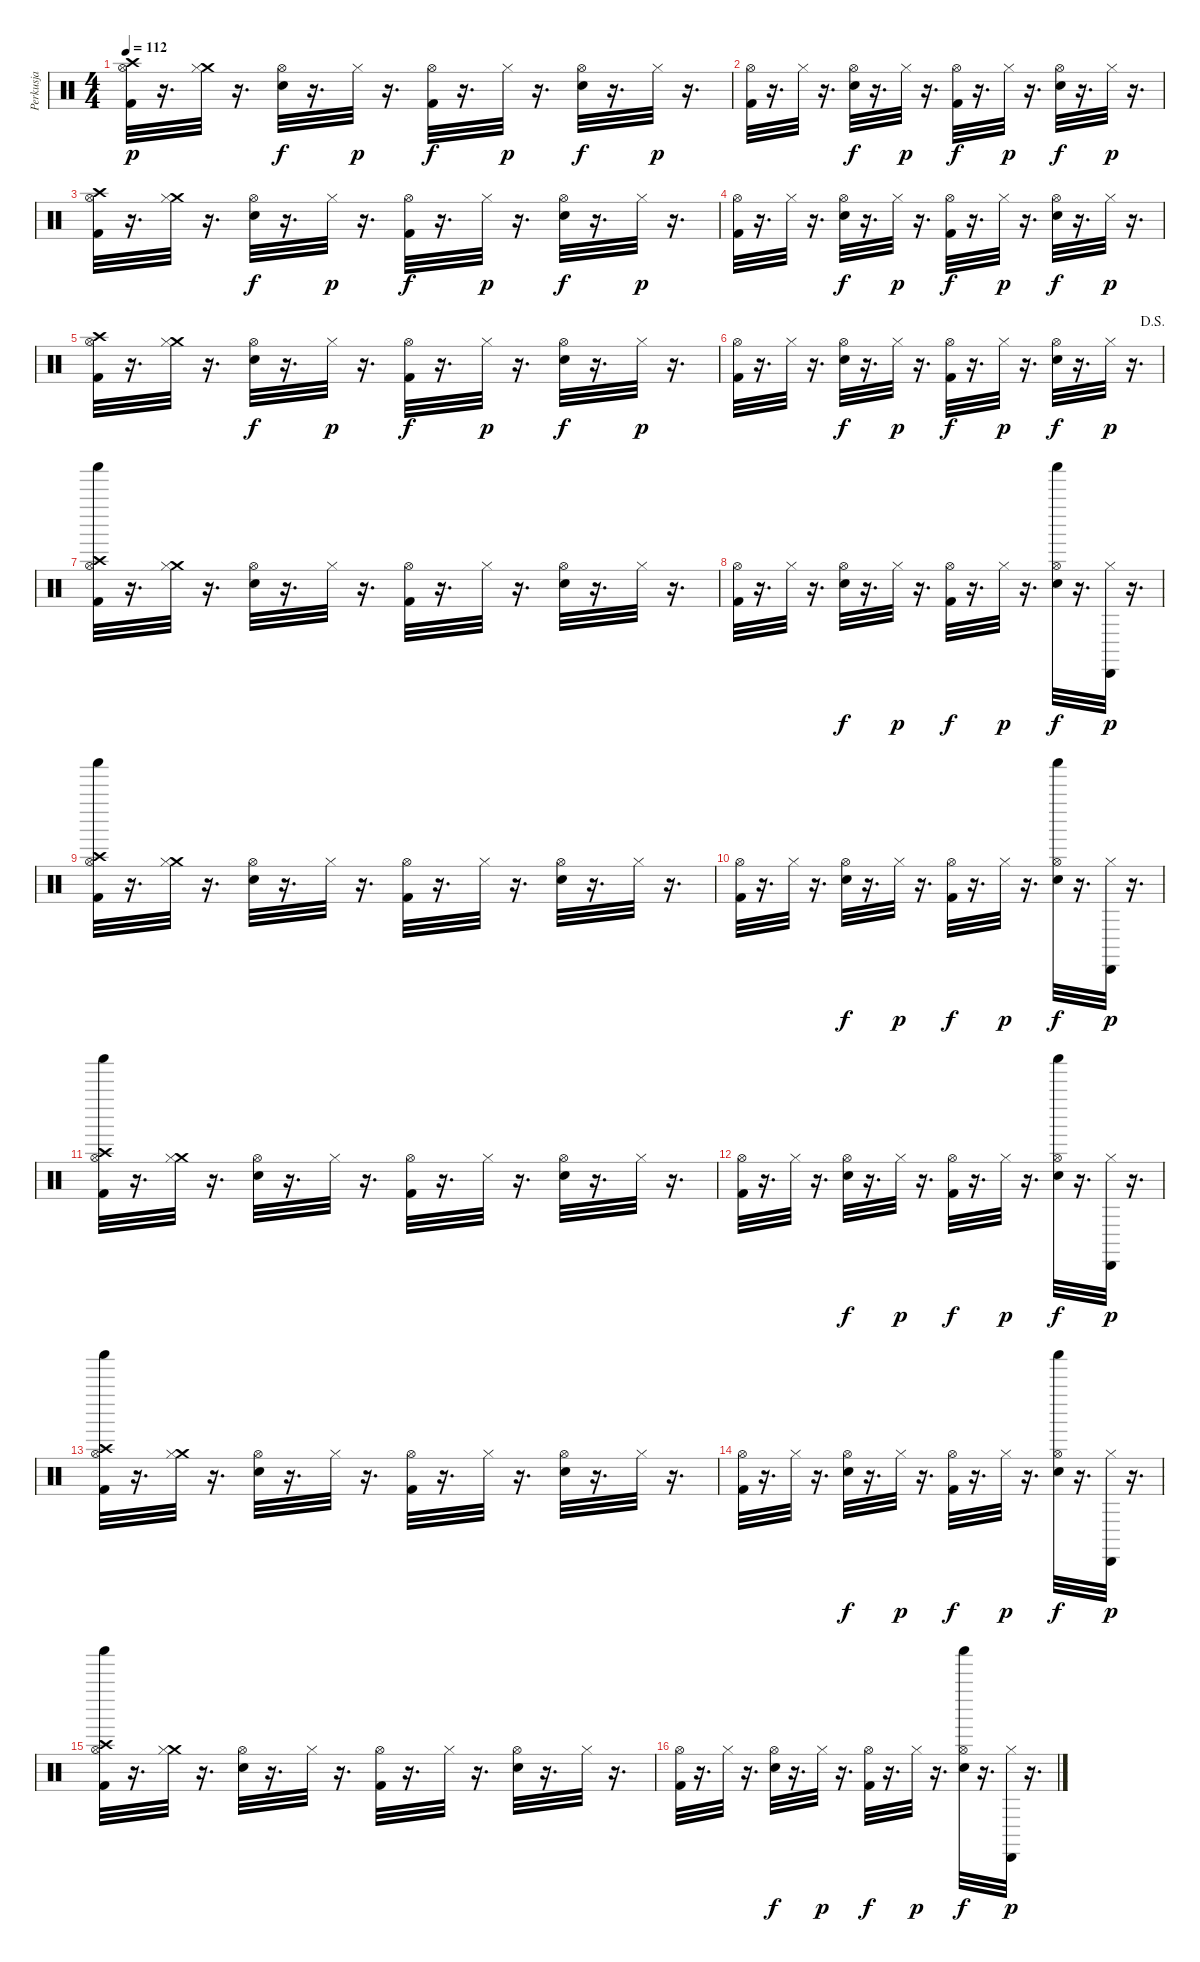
\track ("Perkusja" "Perkusja") {instrument percussion}
\staff {score}
\articulation defaults
\ts (4 4)
\tempo 112
\clef neutral
\ks c
("Crash high (hit)" "Hi-Hat (open)" "Kick (hit) 2").32{dy p} r.16{d} ("Crash medium (hit)" "Hi-Hat (closed)").32 r.16{d} ("Hi-Hat (open)" "Snare (hit) 2").32{dy f} r.16{d} "Hi-Hat (closed)".32{dy p} r.16{d} ("Hi-Hat (open)" "Kick (hit) 2").32{dy f} r.16{d} "Hi-Hat (closed)".32{dy p} r.16{d} ("Hi-Hat (open)" "Snare (hit) 2").32{dy f} r.16{d} "Hi-Hat (closed)".32{dy p} r.16{d} |
("Hi-Hat (open)" "Kick (hit) 2").32 r.16{d} "Hi-Hat (closed)".32 r.16{d} ("Hi-Hat (open)" "Snare (hit) 2").32{dy f} r.16{d} "Hi-Hat (closed)".32{dy p} r.16{d} ("Hi-Hat (open)" "Kick (hit) 2").32{dy f} r.16{d} "Hi-Hat (closed)".32{dy p} r.16{d} ("Hi-Hat (open)" "Snare (hit) 2").32{dy f} r.16{d} "Hi-Hat (closed)".32{dy p} r.16{d} |
("Crash high (hit)" "Hi-Hat (open)" "Kick (hit) 2").32 r.16{d} ("Crash medium (hit)" "Hi-Hat (closed)").32 r.16{d} ("Hi-Hat (open)" "Snare (hit) 2").32{dy f} r.16{d} "Hi-Hat (closed)".32{dy p} r.16{d} ("Hi-Hat (open)" "Kick (hit) 2").32{dy f} r.16{d} "Hi-Hat (closed)".32{dy p} r.16{d} ("Hi-Hat (open)" "Snare (hit) 2").32{dy f} r.16{d} "Hi-Hat (closed)".32{dy p} r.16{d} |
("Hi-Hat (open)" "Kick (hit) 2").32 r.16{d} "Hi-Hat (closed)".32 r.16{d} ("Hi-Hat (open)" "Snare (hit) 2").32{dy f} r.16{d} "Hi-Hat (closed)".32{dy p} r.16{d} ("Hi-Hat (open)" "Kick (hit) 2").32{dy f} r.16{d} "Hi-Hat (closed)".32{dy p} r.16{d} ("Hi-Hat (open)" "Snare (hit) 2").32{dy f} r.16{d} "Hi-Hat (closed)".32{dy p} r.16{d} |
("Crash high (hit)" "Hi-Hat (open)" "Kick (hit) 2").32 r.16{d} ("Crash medium (hit)" "Hi-Hat (closed)").32 r.16{d} ("Hi-Hat (open)" "Snare (hit) 2").32{dy f} r.16{d} "Hi-Hat (closed)".32{dy p} r.16{d} ("Hi-Hat (open)" "Kick (hit) 2").32{dy f} r.16{d} "Hi-Hat (closed)".32{dy p} r.16{d} ("Hi-Hat (open)" "Snare (hit) 2").32{dy f} r.16{d} "Hi-Hat (closed)".32{dy p} r.16{d} |
\jump dalsegno
("Hi-Hat (open)" "Kick (hit) 2").32 r.16{d} "Hi-Hat (closed)".32 r.16{d} ("Hi-Hat (open)" "Snare (hit) 2").32{dy f} r.16{d} "Hi-Hat (closed)".32{dy p} r.16{d} ("Hi-Hat (open)" "Kick (hit) 2").32{dy f} r.16{d} "Hi-Hat (closed)".32{dy p} r.16{d} ("Hi-Hat (open)" "Snare (hit) 2").32{dy f} r.16{d} "Hi-Hat (closed)".32{dy p} r.16{d} |
("Crash high (hit)" "Hi-Hat (open)" "Shaker (hit)" "Kick (hit) 2").32 r.16{d} ("Crash medium (hit)" "Hi-Hat (closed)").32 r.16{d} ("Hi-Hat (open)" "Snare (hit) 2").32 r.16{d} "Hi-Hat (closed)".32 r.16{d} ("Hi-Hat (open)" "Kick (hit) 2").32 r.16{d} "Hi-Hat (closed)".32 r.16{d} ("Hi-Hat (open)" "Snare (hit) 2").32 r.16{d} "Hi-Hat (closed)".32 r.16{d} |
("Hi-Hat (open)" "Kick (hit) 2").32 r.16{d} "Hi-Hat (closed)".32 r.16{d} ("Hi-Hat (open)" "Snare (hit) 2").32{dy f} r.16{d} "Hi-Hat (closed)".32{dy p} r.16{d} ("Hi-Hat (open)" "Kick (hit) 2").32{dy f} r.16{d} "Hi-Hat (closed)".32{dy p} r.16{d} ("Shaker (hit)" "Hi-Hat (open)" "Snare (hit) 2").32{dy f} r.16{d} ("Hi-Hat (closed)" "Cabasa (hit)").32{dy p} r.16{d} |
("Crash high (hit)" "Hi-Hat (open)" "Shaker (hit)" "Kick (hit) 2").32 r.16{d} ("Crash medium (hit)" "Hi-Hat (closed)").32 r.16{d} ("Hi-Hat (open)" "Snare (hit) 2").32 r.16{d} "Hi-Hat (closed)".32 r.16{d} ("Hi-Hat (open)" "Kick (hit) 2").32 r.16{d} "Hi-Hat (closed)".32 r.16{d} ("Hi-Hat (open)" "Snare (hit) 2").32 r.16{d} "Hi-Hat (closed)".32 r.16{d} |
("Hi-Hat (open)" "Kick (hit) 2").32 r.16{d} "Hi-Hat (closed)".32 r.16{d} ("Hi-Hat (open)" "Snare (hit) 2").32{dy f} r.16{d} "Hi-Hat (closed)".32{dy p} r.16{d} ("Hi-Hat (open)" "Kick (hit) 2").32{dy f} r.16{d} "Hi-Hat (closed)".32{dy p} r.16{d} ("Shaker (hit)" "Hi-Hat (open)" "Snare (hit) 2").32{dy f} r.16{d} ("Hi-Hat (closed)" "Cabasa (hit)").32{dy p} r.16{d} |
("Crash high (hit)" "Hi-Hat (open)" "Shaker (hit)" "Kick (hit) 2").32 r.16{d} ("Crash medium (hit)" "Hi-Hat (closed)").32 r.16{d} ("Hi-Hat (open)" "Snare (hit) 2").32 r.16{d} "Hi-Hat (closed)".32 r.16{d} ("Hi-Hat (open)" "Kick (hit) 2").32 r.16{d} "Hi-Hat (closed)".32 r.16{d} ("Hi-Hat (open)" "Snare (hit) 2").32 r.16{d} "Hi-Hat (closed)".32 r.16{d} |
("Hi-Hat (open)" "Kick (hit) 2").32 r.16{d} "Hi-Hat (closed)".32 r.16{d} ("Hi-Hat (open)" "Snare (hit) 2").32{dy f} r.16{d} "Hi-Hat (closed)".32{dy p} r.16{d} ("Hi-Hat (open)" "Kick (hit) 2").32{dy f} r.16{d} "Hi-Hat (closed)".32{dy p} r.16{d} ("Shaker (hit)" "Hi-Hat (open)" "Snare (hit) 2").32{dy f} r.16{d} ("Hi-Hat (closed)" "Cabasa (hit)").32{dy p} r.16{d} |
("Crash high (hit)" "Hi-Hat (open)" "Shaker (hit)" "Kick (hit) 2").32 r.16{d} ("Crash medium (hit)" "Hi-Hat (closed)").32 r.16{d} ("Hi-Hat (open)" "Snare (hit) 2").32 r.16{d} "Hi-Hat (closed)".32 r.16{d} ("Hi-Hat (open)" "Kick (hit) 2").32 r.16{d} "Hi-Hat (closed)".32 r.16{d} ("Hi-Hat (open)" "Snare (hit) 2").32 r.16{d} "Hi-Hat (closed)".32 r.16{d} |
("Hi-Hat (open)" "Kick (hit) 2").32 r.16{d} "Hi-Hat (closed)".32 r.16{d} ("Hi-Hat (open)" "Snare (hit) 2").32{dy f} r.16{d} "Hi-Hat (closed)".32{dy p} r.16{d} ("Hi-Hat (open)" "Kick (hit) 2").32{dy f} r.16{d} "Hi-Hat (closed)".32{dy p} r.16{d} ("Shaker (hit)" "Hi-Hat (open)" "Snare (hit) 2").32{dy f} r.16{d} ("Hi-Hat (closed)" "Cabasa (hit)").32{dy p} r.16{d} |
("Crash high (hit)" "Hi-Hat (open)" "Shaker (hit)" "Kick (hit) 2").32 r.16{d} ("Crash medium (hit)" "Hi-Hat (closed)").32 r.16{d} ("Hi-Hat (open)" "Snare (hit) 2").32 r.16{d} "Hi-Hat (closed)".32 r.16{d} ("Hi-Hat (open)" "Kick (hit) 2").32 r.16{d} "Hi-Hat (closed)".32 r.16{d} ("Hi-Hat (open)" "Snare (hit) 2").32 r.16{d} "Hi-Hat (closed)".32 r.16{d} |
("Hi-Hat (open)" "Kick (hit) 2").32 r.16{d} "Hi-Hat (closed)".32 r.16{d} ("Hi-Hat (open)" "Snare (hit) 2").32{dy f} r.16{d} "Hi-Hat (closed)".32{dy p} r.16{d} ("Hi-Hat (open)" "Kick (hit) 2").32{dy f} r.16{d} "Hi-Hat (closed)".32{dy p} r.16{d} ("Shaker (hit)" "Hi-Hat (open)" "Snare (hit) 2").32{dy f} r.16{d} ("Hi-Hat (closed)" "Cabasa (hit)").32{dy p} r.16{d}
